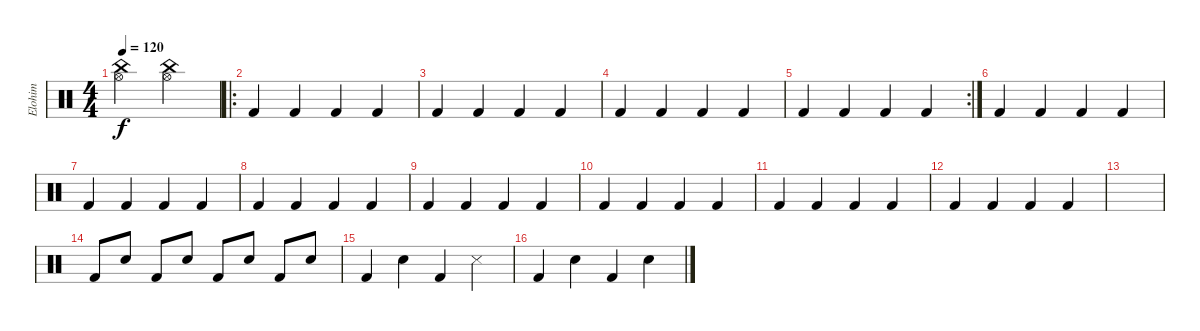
\track ("Elohim" "Elohim") {instrument percussion}
\staff {score}
\articulation defaults
\ts (4 4)
\tempo 120
\clef neutral
\ks c
("China (hit)" "Hi-Hat (open)").2{dy f} ("China (hit)" "Hi-Hat (open)").2 |
\ro "Kick (hit) 2".4 "Kick (hit) 2".4 "Kick (hit) 2".4 "Kick (hit) 2".4
|
"Kick (hit) 2".4 "Kick (hit) 2".4 "Kick (hit) 2".4 "Kick (hit) 2".4 |
"Kick (hit) 2".4 "Kick (hit) 2".4 "Kick (hit) 2".4 "Kick (hit) 2".4 |
\rc 2 "Kick (hit) 2".4 "Kick (hit) 2".4 "Kick (hit) 2".4 "Kick (hit) 2".4
|
"Kick (hit) 2".4 "Kick (hit) 2".4 "Kick (hit) 2".4 "Kick (hit) 2".4 |
"Kick (hit) 2".4 "Kick (hit) 2".4 "Kick (hit) 2".4 "Kick (hit) 2".4 |
"Kick (hit) 2".4 "Kick (hit) 2".4 "Kick (hit) 2".4 "Kick (hit) 2".4 |
"Kick (hit) 2".4 "Kick (hit) 2".4 "Kick (hit) 2".4 "Kick (hit) 2".4 |
"Kick (hit) 2".4 "Kick (hit) 2".4 "Kick (hit) 2".4 "Kick (hit) 2".4 |
"Kick (hit) 2".4 "Kick (hit) 2".4 "Kick (hit) 2".4 "Kick (hit) 2".4 |
"Kick (hit) 2".4 "Kick (hit) 2".4 "Kick (hit) 2".4 "Kick (hit) 2".4 |
|
"Kick (hit) 2".8 "Snare (hit) 2".8 "Kick (hit) 2".8 "Snare (hit) 2".8 "Kick (hit) 2".8 "Snare (hit) 2".8 "Kick (hit) 2".8 "Snare (hit) 2".8 |
"Kick (hit) 2".4 "Snare (hit) 2".4 "Kick (hit) 2".4 "Snare (side stick) 3".4 |
"Kick (hit) 2".4 "Snare (hit) 2".4 "Kick (hit) 2".4 "Snare (hit) 2".4
